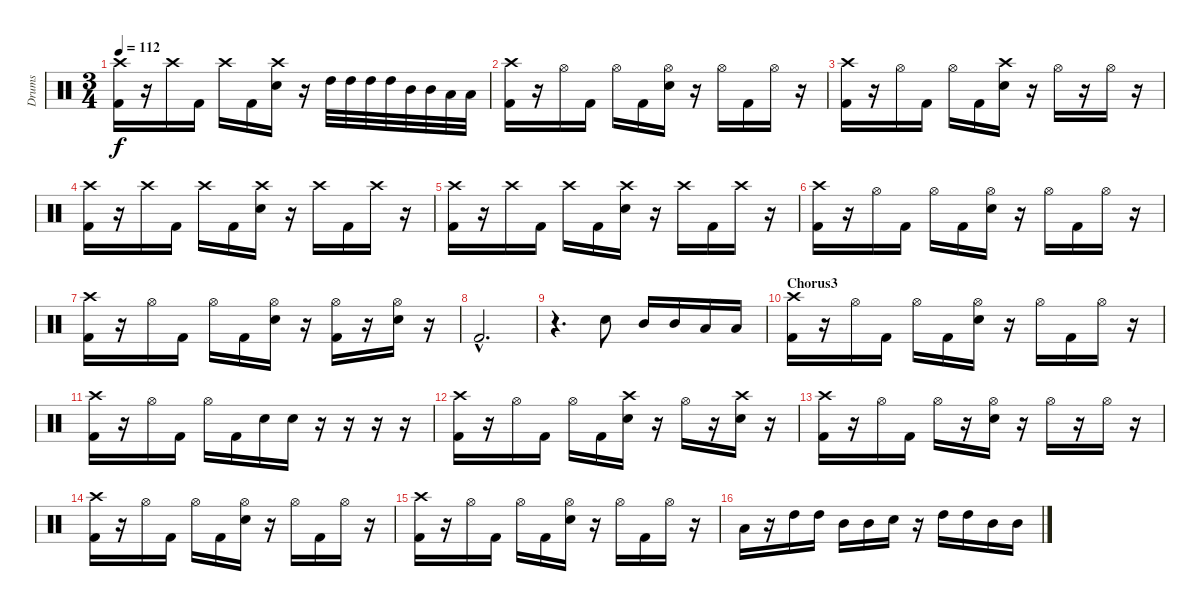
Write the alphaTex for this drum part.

\track ("Drums" "Drums") {instrument percussion}
\staff {score}
\articulation defaults
\ts (3 4)
\tempo 112
\clef neutral
\ks c
("Crash high (hit)" "Kick (hit) 2").16{dy f} r.16 "Crash high (hit)".16 "Kick (hit) 2".16 "Crash high (hit)".16 "Kick (hit) 2".16 ("Crash high (hit)" "Electric Snare (hit)").16 r.16 "High Tom (hit)".32 "High Tom (hit)".32 "High Tom (hit)".32 "High Tom (hit)".32 "Mid Tom (hit)".32 "Mid Tom (hit)".32 "Low Tom (hit)".32 "Low Tom (hit)".32 |
("Crash high (hit)" "Kick (hit) 2").16 r.16 "Hi-Hat (open)".16 "Kick (hit) 2".16 "Hi-Hat (open)".16 "Kick (hit) 2".16 ("Hi-Hat (open)" "Electric Snare (hit)").16 r.16 "Hi-Hat (open)".16 "Kick (hit) 2".16 "Hi-Hat (open)".16 r.16 |
("Crash high (hit)" "Kick (hit) 2").16 r.16 "Hi-Hat (open)".16 "Kick (hit) 2".16 "Hi-Hat (open)".16 "Kick (hit) 2".16 ("Crash high (hit)" "Electric Snare (hit)").16 r.16 "Hi-Hat (open)".16 r.16 "Hi-Hat (open)".16 r.16 |
("Crash high (hit)" "Kick (hit) 2").16 r.16 "Crash high (hit)".16 "Kick (hit) 2".16 "Crash high (hit)".16 "Kick (hit) 2".16 ("Crash high (hit)" "Electric Snare (hit)").16 r.16 "Crash high (hit)".16 "Kick (hit) 2".16 "Crash high (hit)".16 r.16 |
("Crash high (hit)" "Kick (hit) 2").16 r.16 "Crash high (hit)".16 "Kick (hit) 2".16 "Crash high (hit)".16 "Kick (hit) 2".16 ("Crash high (hit)" "Electric Snare (hit)").16 r.16 "Crash high (hit)".16 "Kick (hit) 2".16 "Crash high (hit)".16 r.16 |
("Crash high (hit)" "Kick (hit) 2").16 r.16 "Hi-Hat (open)".16 "Kick (hit) 2".16 "Hi-Hat (open)".16 "Kick (hit) 2".16 ("Hi-Hat (open)" "Electric Snare (hit)").16 r.16 "Hi-Hat (open)".16 "Kick (hit) 2".16 "Hi-Hat (open)".16 r.16 |
("Crash high (hit)" "Kick (hit) 2").16 r.16 "Hi-Hat (open)".16 "Kick (hit) 2".16 "Hi-Hat (open)".16 "Kick (hit) 2".16 ("Hi-Hat (open)" "Electric Snare (hit)").16 r.16 ("Hi-Hat (open)" "Kick (hit) 2").16 r.16 ("Hi-Hat (open)" "Electric Snare (hit)").16 r.16 |
"Kick (hit) 2"{hac}.2{d} |
r.4{d} "Electric Snare (hit)".8 "Mid Tom (hit)".16 "Mid Tom (hit)".16 "Low Tom (hit)".16 "Low Tom (hit)".16 |
\section ("" "Chorus3")
("Crash high (hit)" "Kick (hit) 2").16 r.16 "Hi-Hat (open)".16 "Kick (hit) 2".16 "Hi-Hat (open)".16 "Kick (hit) 2".16 ("Hi-Hat (open)" "Electric Snare (hit)").16 r.16 "Hi-Hat (open)".16 "Kick (hit) 2".16 "Hi-Hat (open)".16 r.16 |
("Crash high (hit)" "Kick (hit) 2").16 r.16 "Hi-Hat (open)".16 "Kick (hit) 2".16 "Hi-Hat (open)".16 "Kick (hit) 2".16 "Electric Snare (hit)".16 "Electric Snare (hit)".16 r.16 r.16 r.16 r.16 |
("Crash high (hit)" "Kick (hit) 2").16 r.16 "Hi-Hat (open)".16 "Kick (hit) 2".16 "Hi-Hat (open)".16 "Kick (hit) 2".16 ("Crash high (hit)" "Electric Snare (hit)").16 r.16 "Hi-Hat (open)".16 r.16 ("Crash high (hit)" "Electric Snare (hit)").16 r.16 |
("Crash high (hit)" "Kick (hit) 2").16 r.16 "Hi-Hat (open)".16 "Kick (hit) 2".16 "Hi-Hat (open)".16 r.16 ("Hi-Hat (open)" "Electric Snare (hit)").16 r.16 "Hi-Hat (open)".16 r.16 "Hi-Hat (open)".16 r.16 |
("Crash high (hit)" "Kick (hit) 2").16 r.16 "Hi-Hat (open)".16 "Kick (hit) 2".16 "Hi-Hat (open)".16 "Kick (hit) 2".16 ("Hi-Hat (open)" "Electric Snare (hit)").16 r.16 "Hi-Hat (open)".16 "Kick (hit) 2".16 "Hi-Hat (open)".16 r.16 |
("Crash high (hit)" "Kick (hit) 2").16 r.16 "Hi-Hat (open)".16 "Kick (hit) 2".16 "Hi-Hat (open)".16 "Kick (hit) 2".16 ("Hi-Hat (open)" "Electric Snare (hit)").16 r.16 "Hi-Hat (open)".16 "Kick (hit) 2".16 "Hi-Hat (open)".16 r.16 |
"Low Tom (hit)".16 r.16 "High Tom (hit)".16 "High Tom (hit)".16 "Mid Tom (hit)".16 "Mid Tom (hit)".16 "Electric Snare (hit)".16 r.16 "High Tom (hit)".16 "High Tom (hit)".16 "Mid Tom (hit)".16 "Mid Tom (hit)".16
